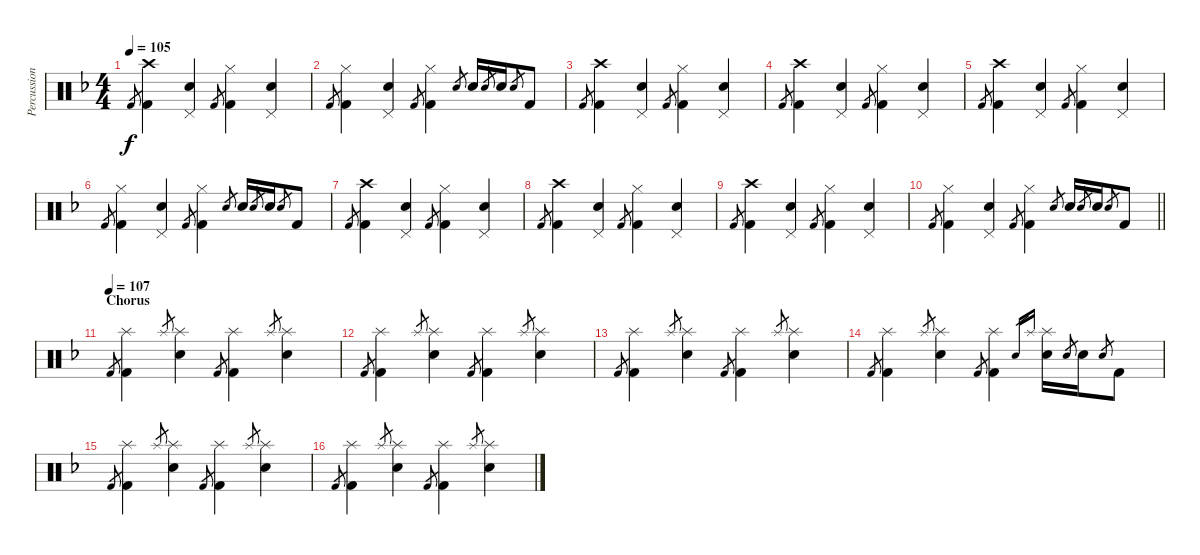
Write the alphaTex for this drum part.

\track ("Percussion" "Percussion") {instrument percussion}
\staff {score}
\articulation defaults
\ts (4 4)
\tempo 105
\clef neutral
\ks f "Kick (hit) 2".8{gr dy f}
("Kick (hit) 2" "Crash high (hit)").4 ("Snare (hit) 2" "Pedal Hi-Hat (hit)").4 "Kick (hit) 2".8{gr} ("Kick (hit) 2" "Hi-Hat (closed)").4 ("Snare (hit) 2" "Pedal Hi-Hat (hit)").4 |
"Kick (hit) 2".8{gr} ("Kick (hit) 2" "Hi-Hat (closed)").4 ("Snare (hit) 2" "Pedal Hi-Hat (hit)").4 "Kick (hit) 2".8{gr} ("Kick (hit) 2" "Hi-Hat (closed)").4 "Snare (hit) 2".8{gr} "Snare (hit) 2".16 "Snare (hit) 2".8{gr} "Snare (hit) 2".16 "Snare (hit) 2".8{gr} "Kick (hit) 2".8 |
"Kick (hit) 2".8{gr} ("Kick (hit) 2" "Crash high (hit)").4 ("Snare (hit) 2" "Pedal Hi-Hat (hit)").4 "Kick (hit) 2".8{gr} ("Kick (hit) 2" "Hi-Hat (closed)").4 ("Snare (hit) 2" "Pedal Hi-Hat (hit)").4 |
"Kick (hit) 2".8{gr} ("Kick (hit) 2" "Crash high (hit)").4 ("Snare (hit) 2" "Pedal Hi-Hat (hit)").4 "Kick (hit) 2".8{gr} ("Kick (hit) 2" "Hi-Hat (closed)").4 ("Snare (hit) 2" "Pedal Hi-Hat (hit)").4 |
"Kick (hit) 2".8{gr} ("Kick (hit) 2" "Crash high (hit)").4 ("Snare (hit) 2" "Pedal Hi-Hat (hit)").4 "Kick (hit) 2".8{gr} ("Kick (hit) 2" "Hi-Hat (closed)").4 ("Snare (hit) 2" "Pedal Hi-Hat (hit)").4 |
"Kick (hit) 2".8{gr} ("Kick (hit) 2" "Hi-Hat (closed)").4 ("Snare (hit) 2" "Pedal Hi-Hat (hit)").4 "Kick (hit) 2".8{gr} ("Kick (hit) 2" "Hi-Hat (closed)").4 "Snare (hit) 2".8{gr} "Snare (hit) 2".16 "Snare (hit) 2".8{gr} "Snare (hit) 2".16 "Snare (hit) 2".8{gr} "Kick (hit) 2".8 |
"Kick (hit) 2".8{gr} ("Kick (hit) 2" "Crash high (hit)").4 ("Snare (hit) 2" "Pedal Hi-Hat (hit)").4 "Kick (hit) 2".8{gr} ("Kick (hit) 2" "Hi-Hat (closed)").4 ("Snare (hit) 2" "Pedal Hi-Hat (hit)").4 |
"Kick (hit) 2".8{gr} ("Kick (hit) 2" "Crash high (hit)").4 ("Snare (hit) 2" "Pedal Hi-Hat (hit)").4 "Kick (hit) 2".8{gr} ("Kick (hit) 2" "Hi-Hat (closed)").4 ("Snare (hit) 2" "Pedal Hi-Hat (hit)").4 |
"Kick (hit) 2".8{gr} ("Kick (hit) 2" "Crash high (hit)").4 ("Snare (hit) 2" "Pedal Hi-Hat (hit)").4 "Kick (hit) 2".8{gr} ("Kick (hit) 2" "Hi-Hat (closed)").4 ("Snare (hit) 2" "Pedal Hi-Hat (hit)").4 |
\barLineRight lightlight "Kick (hit) 2".8{gr}
("Kick (hit) 2" "Hi-Hat (closed)").4 ("Snare (hit) 2" "Pedal Hi-Hat (hit)").4 "Kick (hit) 2".8{gr} ("Kick (hit) 2" "Hi-Hat (closed)").4 "Snare (hit) 2".8{gr} "Snare (hit) 2".16 "Snare (hit) 2".8{gr} "Snare (hit) 2".16 "Snare (hit) 2".8{gr} "Kick (hit) 2".8 |
\section ("" "Chorus")
\tempo (107)
"Kick (hit) 2".8{gr} ("Kick (hit) 2" "Splash (hit)").4 "Splash (hit)".8{gr} ("Snare (hit) 2" "Splash (hit)").4 "Kick (hit) 2".8{gr} ("Kick (hit) 2" "Splash (hit)").4 "Splash (hit)".8{gr} ("Snare (hit) 2" "Splash (hit)").4 |
"Kick (hit) 2".8{gr} ("Kick (hit) 2" "Splash (hit)").4 "Splash (hit)".8{gr} ("Snare (hit) 2" "Splash (hit)").4 "Kick (hit) 2".8{gr} ("Kick (hit) 2" "Splash (hit)").4 "Splash (hit)".8{gr} ("Snare (hit) 2" "Splash (hit)").4 |
"Kick (hit) 2".8{gr} ("Kick (hit) 2" "Splash (hit)").4 "Splash (hit)".8{gr} ("Snare (hit) 2" "Splash (hit)").4 "Kick (hit) 2".8{gr} ("Kick (hit) 2" "Splash (hit)").4 "Splash (hit)".8{gr} ("Snare (hit) 2" "Splash (hit)").4 |
"Kick (hit) 2".8{gr} ("Kick (hit) 2" "Splash (hit)").4 "Splash (hit)".8{gr} ("Snare (hit) 2" "Splash (hit)").4 "Kick (hit) 2".8{gr} ("Kick (hit) 2" "Splash (hit)").4 "Snare (hit) 2".16{gr} "Splash (hit)".16{gr} ("Snare (hit) 2" "Splash (hit)").16 "Snare (hit) 2".8{gr} "Snare (hit) 2".16 "Snare (hit) 2".8{gr} "Kick (hit) 2".8 |
"Kick (hit) 2".8{gr} ("Kick (hit) 2" "Splash (hit)").4 "Splash (hit)".8{gr} ("Snare (hit) 2" "Splash (hit)").4 "Kick (hit) 2".8{gr} ("Kick (hit) 2" "Splash (hit)").4 "Splash (hit)".8{gr} ("Snare (hit) 2" "Splash (hit)").4 |
"Kick (hit) 2".8{gr} ("Kick (hit) 2" "Splash (hit)").4 "Splash (hit)".8{gr} ("Snare (hit) 2" "Splash (hit)").4 "Kick (hit) 2".8{gr} ("Kick (hit) 2" "Splash (hit)").4 "Splash (hit)".8{gr} ("Snare (hit) 2" "Splash (hit)").4
